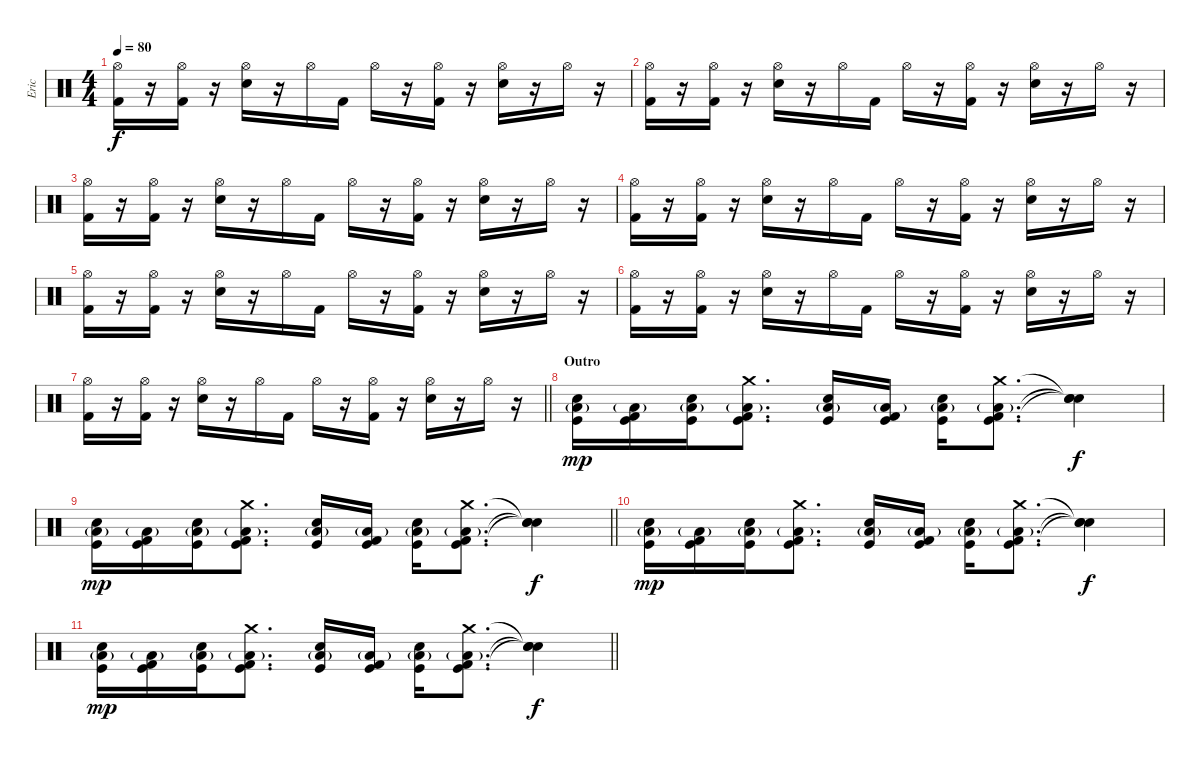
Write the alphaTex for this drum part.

\track ("Eric" "Eric") {instrument percussion}
\staff {score}
\articulation defaults
\ts (4 4)
\tempo 80
\clef neutral
\ks c
("Hi-Hat (open)" "Kick (hit) 2").16{dy f} r.16 ("Hi-Hat (open)" "Kick (hit) 2").16 r.16 ("Hi-Hat (open)" "Electric Snare (hit)").16 r.16 "Hi-Hat (open)".16 "Kick (hit) 2".16 "Hi-Hat (open)".16 r.16 ("Hi-Hat (open)" "Kick (hit) 2").16 r.16 ("Hi-Hat (open)" "Electric Snare (hit)").16 r.16 "Hi-Hat (open)".16 r.16 |
("Hi-Hat (open)" "Kick (hit) 2").16 r.16 ("Hi-Hat (open)" "Kick (hit) 2").16 r.16 ("Hi-Hat (open)" "Electric Snare (hit)").16 r.16 "Hi-Hat (open)".16 "Kick (hit) 2".16 "Hi-Hat (open)".16 r.16 ("Hi-Hat (open)" "Kick (hit) 2").16 r.16 ("Hi-Hat (open)" "Electric Snare (hit)").16 r.16 "Hi-Hat (open)".16 r.16 |
("Hi-Hat (open)" "Kick (hit) 2").16 r.16 ("Hi-Hat (open)" "Kick (hit) 2").16 r.16 ("Hi-Hat (open)" "Electric Snare (hit)").16 r.16 "Hi-Hat (open)".16 "Kick (hit) 2".16 "Hi-Hat (open)".16 r.16 ("Hi-Hat (open)" "Kick (hit) 2").16 r.16 ("Hi-Hat (open)" "Electric Snare (hit)").16 r.16 "Hi-Hat (open)".16 r.16 |
("Hi-Hat (open)" "Kick (hit) 2").16 r.16 ("Hi-Hat (open)" "Kick (hit) 2").16 r.16 ("Hi-Hat (open)" "Electric Snare (hit)").16 r.16 "Hi-Hat (open)".16 "Kick (hit) 2".16 "Hi-Hat (open)".16 r.16 ("Hi-Hat (open)" "Kick (hit) 2").16 r.16 ("Hi-Hat (open)" "Electric Snare (hit)").16 r.16 "Hi-Hat (open)".16 r.16 |
("Hi-Hat (open)" "Kick (hit) 2").16 r.16 ("Hi-Hat (open)" "Kick (hit) 2").16 r.16 ("Hi-Hat (open)" "Electric Snare (hit)").16 r.16 "Hi-Hat (open)".16 "Kick (hit) 2".16 "Hi-Hat (open)".16 r.16 ("Hi-Hat (open)" "Kick (hit) 2").16 r.16 ("Hi-Hat (open)" "Electric Snare (hit)").16 r.16 "Hi-Hat (open)".16 r.16 |
("Hi-Hat (open)" "Kick (hit) 2").16 r.16 ("Hi-Hat (open)" "Kick (hit) 2").16 r.16 ("Hi-Hat (open)" "Electric Snare (hit)").16 r.16 "Hi-Hat (open)".16 "Kick (hit) 2".16 "Hi-Hat (open)".16 r.16 ("Hi-Hat (open)" "Kick (hit) 2").16 r.16 ("Hi-Hat (open)" "Electric Snare (hit)").16 r.16 "Hi-Hat (open)".16 r.16 |
\barLineRight lightlight
("Hi-Hat (open)" "Kick (hit) 2").16 r.16 ("Hi-Hat (open)" "Kick (hit) 2").16 r.16 ("Hi-Hat (open)" "Electric Snare (hit)").16 r.16 "Hi-Hat (open)".16 "Kick (hit) 2".16 "Hi-Hat (open)".16 r.16 ("Hi-Hat (open)" "Kick (hit) 2").16 r.16 ("Hi-Hat (open)" "Electric Snare (hit)").16 r.16 "Hi-Hat (open)".16 r.16 |
\section ("" "Outro")
("Electric Snare (hit)" "Low Tom (hit)"{g} "Kick (hit)").16{dy mp} ("Kick (hit) 2" "Low Tom (hit)"{g} "Kick (hit)").16 ("Electric Snare (hit)" "Low Tom (hit)"{g} "Kick (hit)").16 ("Crash medium (hit)" "Kick (hit) 2" "Low Tom (hit)"{g} "Kick (hit)").8{d} ("Electric Snare (hit)" "Low Tom (hit)"{g} "Kick (hit)").16 ("Kick (hit) 2" "Low Tom (hit)"{g} "Kick (hit)").16 ("Electric Snare (hit)" "Low Tom (hit)"{g} "Kick (hit)").16 ("Crash medium (hit)" "Kick (hit) 2" "Low Tom (hit)"{g} "Kick (hit)").8{d} ("Snare (hit)"{t} "Snare (hit)"{t} "Snare (hit)"{t}).4{dy f} |
\barLineRight lightlight
("Electric Snare (hit)" "Low Tom (hit)"{g} "Kick (hit)").16{dy mp} ("Kick (hit) 2" "Low Tom (hit)"{g} "Kick (hit)").16 ("Electric Snare (hit)" "Low Tom (hit)"{g} "Kick (hit)").16 ("Crash medium (hit)" "Kick (hit) 2" "Low Tom (hit)"{g} "Kick (hit)").8{d} ("Electric Snare (hit)" "Low Tom (hit)"{g} "Kick (hit)").16 ("Kick (hit) 2" "Low Tom (hit)"{g} "Kick (hit)").16 ("Electric Snare (hit)" "Low Tom (hit)"{g} "Kick (hit)").16 ("Crash medium (hit)" "Kick (hit) 2" "Low Tom (hit)"{g} "Kick (hit)").8{d} ("Snare (hit)"{t} "Snare (hit)"{t} "Snare (hit)"{t}).4{dy f} |
("Electric Snare (hit)" "Low Tom (hit)"{g} "Kick (hit)").16{dy mp} ("Kick (hit) 2" "Low Tom (hit)"{g} "Kick (hit)").16 ("Electric Snare (hit)" "Low Tom (hit)"{g} "Kick (hit)").16 ("Crash medium (hit)" "Kick (hit) 2" "Low Tom (hit)"{g} "Kick (hit)").8{d} ("Electric Snare (hit)" "Low Tom (hit)"{g} "Kick (hit)").16 ("Kick (hit) 2" "Low Tom (hit)"{g} "Kick (hit)").16 ("Electric Snare (hit)" "Low Tom (hit)"{g} "Kick (hit)").16 ("Crash medium (hit)" "Kick (hit) 2" "Low Tom (hit)"{g} "Kick (hit)").8{d} ("Snare (hit)"{t} "Snare (hit)"{t} "Snare (hit)"{t}).4{dy f} |
\barLineRight lightlight
("Electric Snare (hit)" "Low Tom (hit)"{g} "Kick (hit)").16{dy mp} ("Kick (hit) 2" "Low Tom (hit)"{g} "Kick (hit)").16 ("Electric Snare (hit)" "Low Tom (hit)"{g} "Kick (hit)").16 ("Crash medium (hit)" "Kick (hit) 2" "Low Tom (hit)"{g} "Kick (hit)").8{d} ("Electric Snare (hit)" "Low Tom (hit)"{g} "Kick (hit)").16 ("Kick (hit) 2" "Low Tom (hit)"{g} "Kick (hit)").16 ("Electric Snare (hit)" "Low Tom (hit)"{g} "Kick (hit)").16 ("Crash medium (hit)" "Kick (hit) 2" "Low Tom (hit)"{g} "Kick (hit)").8{d} ("Snare (hit)"{t} "Snare (hit)"{t} "Snare (hit)"{t}).4{dy f}
